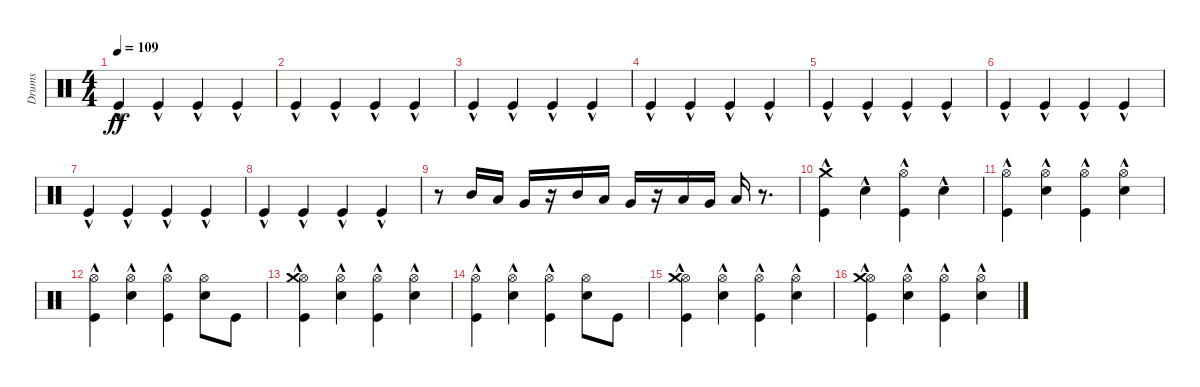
\track ("Drums" "Drums") {instrument percussion}
\staff {score}
\articulation defaults
\ts (4 4)
\tempo 109
\clef neutral
\ks c "Kick (hit)"{hac}.4{dy ff} "Kick (hit)"{hac}.4 "Kick (hit)"{hac}.4 "Kick (hit)"{hac}.4
|
"Kick (hit)"{hac}.4 "Kick (hit)"{hac}.4 "Kick (hit)"{hac}.4 "Kick (hit)"{hac}.4 |
"Kick (hit)"{hac}.4 "Kick (hit)"{hac}.4 "Kick (hit)"{hac}.4 "Kick (hit)"{hac}.4 |
"Kick (hit)"{hac}.4 "Kick (hit)"{hac}.4 "Kick (hit)"{hac}.4 "Kick (hit)"{hac}.4 |
"Kick (hit)"{hac}.4 "Kick (hit)"{hac}.4 "Kick (hit)"{hac}.4 "Kick (hit)"{hac}.4 |
"Kick (hit)"{hac}.4 "Kick (hit)"{hac}.4 "Kick (hit)"{hac}.4 "Kick (hit)"{hac}.4 |
"Kick (hit)"{hac}.4 "Kick (hit)"{hac}.4 "Kick (hit)"{hac}.4 "Kick (hit)"{hac}.4 |
"Kick (hit)"{hac}.4 "Kick (hit)"{hac}.4 "Kick (hit)"{hac}.4 "Kick (hit)"{hac}.4 |
r.8 "Mid Tom (hit)".16 "Low Tom (hit)".16 "Very Low Tom (hit)".16 r.16 "Mid Tom (hit)".16 "Low Tom (hit)".16 "Very Low Tom (hit)".16 r.16 "Low Tom (hit)".16 "Very Low Tom (hit)".16 "Low Floor Tom (hit)".16 r.8{d} |
("Kick (hit)"{hac} "Crash medium (hit)"{hac}).4 "Electric Snare (hit)"{hac}.4 ("Kick (hit)"{hac} "Hi-Hat (open)"{hac}).4 "Electric Snare (hit)"{hac}.4 |
("Kick (hit)"{hac} "Hi-Hat (open)"{hac}).4 ("Electric Snare (hit)"{hac} "Hi-Hat (open)"{hac}).4 ("Kick (hit)"{hac} "Hi-Hat (open)"{hac}).4 ("Electric Snare (hit)"{hac} "Hi-Hat (open)"{hac}).4 |
("Kick (hit)"{hac} "Hi-Hat (open)"{hac}).4 ("Electric Snare (hit)"{hac} "Hi-Hat (open)"{hac}).4 ("Kick (hit)"{hac} "Hi-Hat (open)"{hac}).4 ("Electric Snare (hit)" "Hi-Hat (open)").8 "Kick (hit)".8 |
("Kick (hit)"{hac} "Hi-Hat (open)"{hac} "Crash medium (hit)"{hac}).4 ("Electric Snare (hit)"{hac} "Hi-Hat (open)"{hac}).4 ("Kick (hit)"{hac} "Hi-Hat (open)"{hac}).4 ("Electric Snare (hit)"{hac} "Hi-Hat (open)"{hac}).4 |
("Kick (hit)"{hac} "Hi-Hat (open)"{hac}).4 ("Electric Snare (hit)"{hac} "Hi-Hat (open)"{hac}).4 ("Kick (hit)"{hac} "Hi-Hat (open)"{hac}).4 ("Electric Snare (hit)" "Hi-Hat (open)").8 "Kick (hit)".8 |
("Kick (hit)"{hac} "Hi-Hat (open)"{hac} "Crash medium (hit)"{hac}).4 ("Electric Snare (hit)"{hac} "Hi-Hat (open)"{hac}).4 ("Kick (hit)"{hac} "Hi-Hat (open)"{hac}).4 ("Electric Snare (hit)"{hac} "Hi-Hat (open)"{hac}).4 |
("Kick (hit)"{hac} "Hi-Hat (open)"{hac} "Crash medium (hit)"{hac}).4 ("Electric Snare (hit)"{hac} "Hi-Hat (open)"{hac}).4 ("Kick (hit)"{hac} "Hi-Hat (open)"{hac}).4 ("Electric Snare (hit)"{hac} "Hi-Hat (open)"{hac}).4
